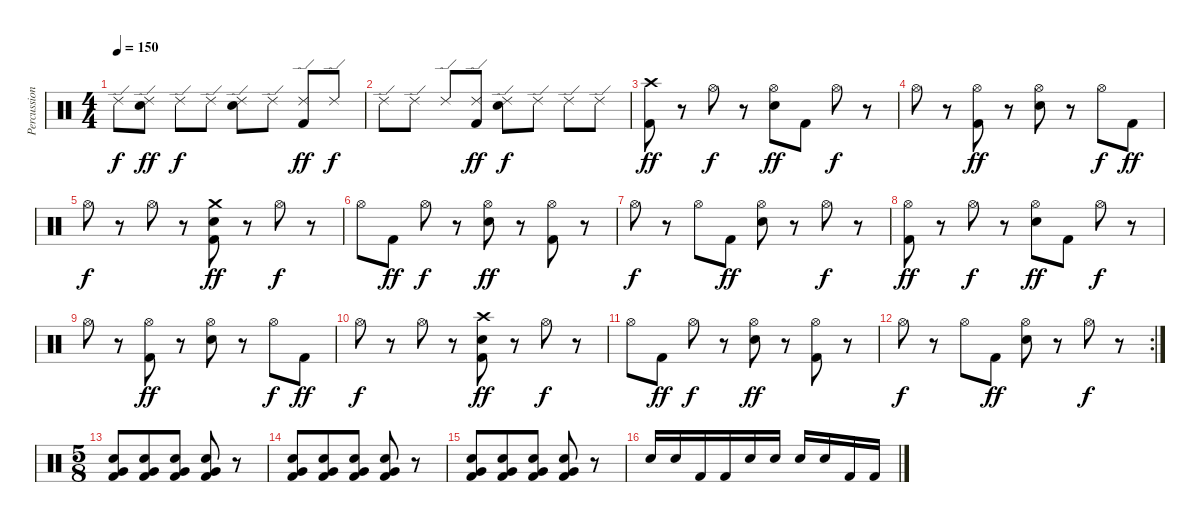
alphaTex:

\track ("Percussion" "Percussion") {instrument percussion}
\staff {score}
\articulation defaults
\ts (4 4)
\tempo 150
\clef neutral
\ks c "Ride (edge) 2".8{dy f}
("Ride (edge) 2" "Snare (hit) 2").8{dy ff} "Ride (edge) 2".8{dy f} "Ride (edge) 2".8 ("Ride (edge) 2" "Snare (hit) 2").8 "Ride (edge) 2".8 ("Ride (edge) 2" "Kick (hit) 2").8{dy ff} "Ride (edge) 2".8{dy f} |
"Ride (edge) 2".8 "Ride (edge) 2".8 "Ride (edge) 2".8 ("Ride (edge) 2" "Kick (hit) 2").8{dy ff} ("Ride (edge) 2" "Snare (hit) 2").8{dy f} "Ride (edge) 2".8 "Ride (edge) 2".8 "Ride (edge) 2".8 |
("Crash high (hit)" "Kick (hit) 2").8{dy ff} r.8 "Hi-Hat (open)".8{dy f} r.8 ("Hi-Hat (open)" "Snare (hit) 2").8{dy ff} "Kick (hit) 2".8 "Hi-Hat (open)".8{dy f} r.8 |
"Hi-Hat (open)".8 r.8 ("Hi-Hat (open)" "Kick (hit) 2").8{dy ff} r.8 ("Hi-Hat (open)" "Snare (hit) 2").8 r.8 "Hi-Hat (open)".8{dy f} "Kick (hit) 2".8{dy ff} |
"Hi-Hat (open)".8{dy f} r.8 "Hi-Hat (open)".8 r.8 ("Crash medium (hit)" "Snare (hit) 2" "Kick (hit) 2").8{dy ff} r.8 "Hi-Hat (open)".8{dy f} r.8 |
"Hi-Hat (open)".8 "Kick (hit) 2".8{dy ff} "Hi-Hat (open)".8{dy f} r.8 ("Hi-Hat (open)" "Snare (hit) 2").8{dy ff} r.8 ("Hi-Hat (open)" "Kick (hit) 2").8 r.8 |
"Hi-Hat (open)".8{dy f} r.8 "Hi-Hat (open)".8 "Kick (hit) 2".8{dy ff} ("Hi-Hat (open)" "Snare (hit) 2").8 r.8 "Hi-Hat (open)".8{dy f} r.8 |
("Hi-Hat (open)" "Kick (hit) 2").8{dy ff} r.8 "Hi-Hat (open)".8{dy f} r.8 ("Hi-Hat (open)" "Snare (hit) 2").8{dy ff} "Kick (hit) 2".8 "Hi-Hat (open)".8{dy f} r.8 |
"Hi-Hat (open)".8 r.8 ("Hi-Hat (open)" "Kick (hit) 2").8{dy ff} r.8 ("Hi-Hat (open)" "Snare (hit) 2").8 r.8 "Hi-Hat (open)".8{dy f} "Kick (hit) 2".8{dy ff} |
"Hi-Hat (open)".8{dy f} r.8 "Hi-Hat (open)".8 r.8 ("Crash high (hit)" "Snare (hit) 2" "Kick (hit) 2").8{dy ff} r.8 "Hi-Hat (open)".8{dy f} r.8 |
"Hi-Hat (open)".8 "Kick (hit) 2".8{dy ff} "Hi-Hat (open)".8{dy f} r.8 ("Hi-Hat (open)" "Snare (hit) 2").8{dy ff} r.8 ("Hi-Hat (open)" "Kick (hit) 2").8 r.8 |
\rc 2 "Hi-Hat (open)".8{dy f}
r.8 "Hi-Hat (open)".8 "Kick (hit) 2".8{dy ff} ("Hi-Hat (open)" "Snare (hit) 2").8 r.8 "Hi-Hat (open)".8{dy f} r.8 |
\ts (5 8)
("Very Low Tom (hit)" "Snare (hit) 2" "Kick (hit) 2").8 ("Very Low Tom (hit)" "Snare (hit) 2" "Kick (hit) 2").8 ("Very Low Tom (hit)" "Snare (hit) 2" "Kick (hit) 2").8 ("Very Low Tom (hit)" "Snare (hit) 2" "Kick (hit) 2").8 r.8 |
("Very Low Tom (hit)" "Snare (hit) 2" "Kick (hit) 2").8 ("Very Low Tom (hit)" "Snare (hit) 2" "Kick (hit) 2").8 ("Very Low Tom (hit)" "Snare (hit) 2" "Kick (hit) 2").8 ("Very Low Tom (hit)" "Snare (hit) 2" "Kick (hit) 2").8 r.8 |
("Very Low Tom (hit)" "Snare (hit) 2" "Kick (hit) 2").8 ("Very Low Tom (hit)" "Snare (hit) 2" "Kick (hit) 2").8 ("Very Low Tom (hit)" "Snare (hit) 2" "Kick (hit) 2").8 ("Very Low Tom (hit)" "Snare (hit) 2" "Kick (hit) 2").8 r.8 |
"Snare (hit) 2".16 "Snare (hit) 2".16 "Kick (hit) 2".16 "Kick (hit) 2".16 "Snare (hit) 2".16 "Snare (hit) 2".16 "Snare (hit) 2".16 "Snare (hit) 2".16 "Kick (hit) 2".16 "Kick (hit) 2".16
